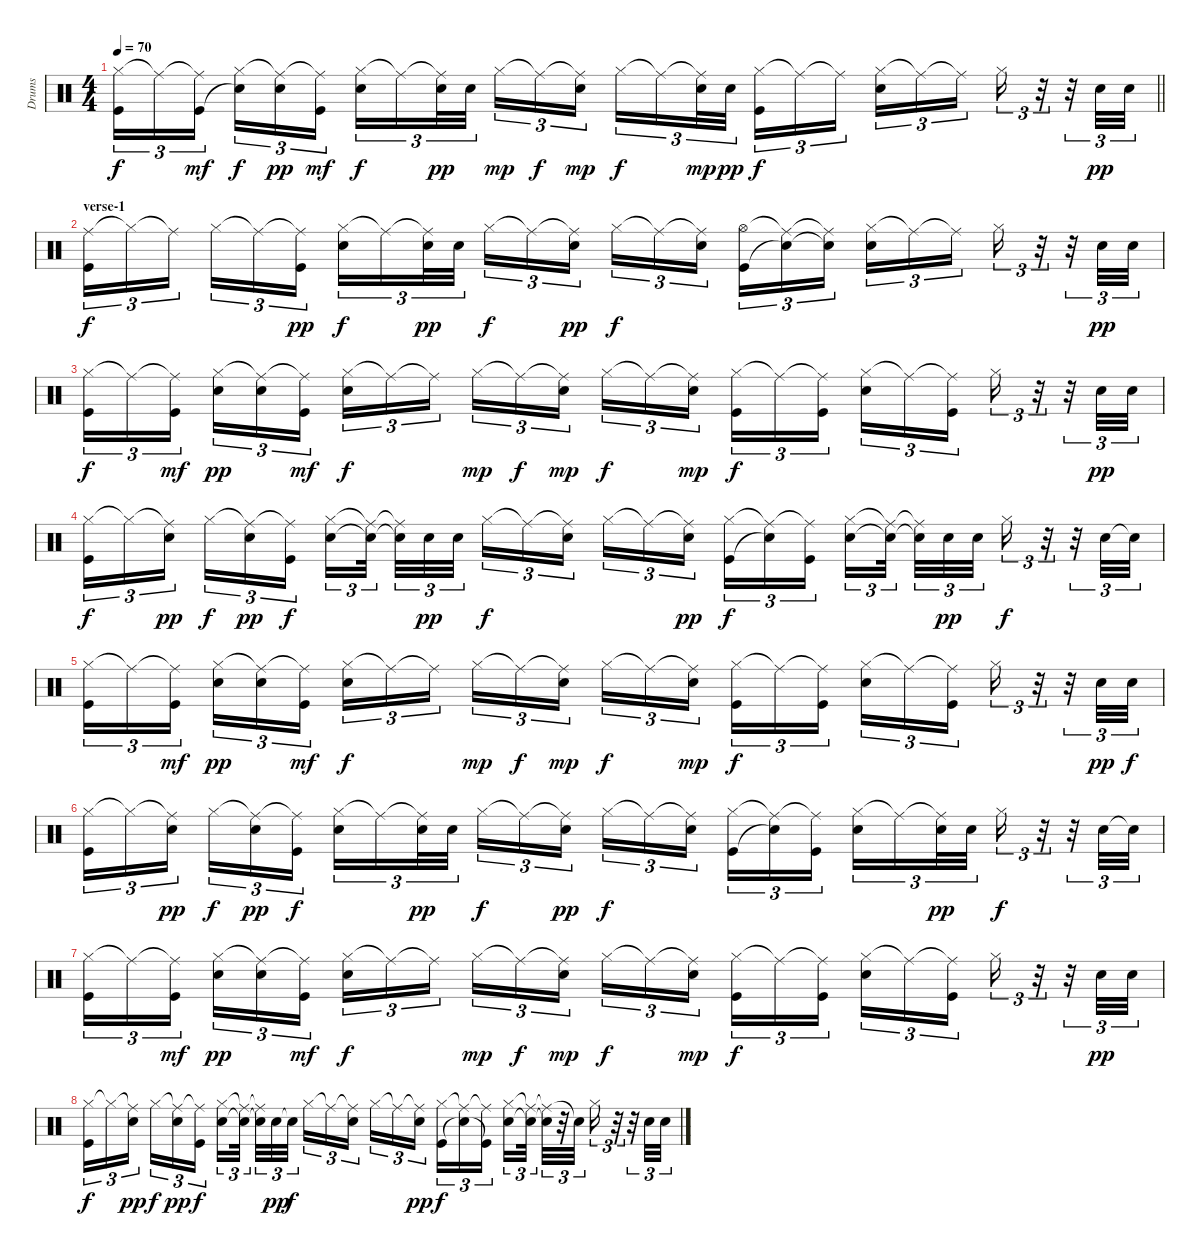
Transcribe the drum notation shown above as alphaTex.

\track ("Drums" "Drums") {instrument percussion}
\staff {score}
\articulation defaults
\ts (4 4)
\tempo 70
\clef neutral
\barLineRight lightlight
\ks c
("Hi-Hat (closed)" "Kick (hit)").16{tu (3 2) dy f} "Ride (middle)"{t}.16{tu (3 2)} ("Ride (middle)"{t} "Kick (hit)").16{tu (3 2) dy mf} ("Hi-Hat (closed)" "Electric Snare (hit)"{t}).16{tu (3 2) dy f} ("Ride (middle)"{t} "Electric Snare (hit)").16{tu (3 2) dy pp} ("Ride (middle)"{t} "Kick (hit)").16{tu (3 2) dy mf} ("Hi-Hat (closed)" "Electric Snare (hit)").16{tu (3 2) dy f} "Ride (middle)"{t}.16{tu (3 2)} ("Ride (middle)"{t} "Electric Snare (hit)").32{tu (3 2) dy pp} "Electric Snare (hit)".32{tu (3 2)} "Hi-Hat (closed)".16{tu (3 2) dy mp} "Ride (middle)"{t}.16{tu (3 2) dy f} ("Ride (middle)"{t} "Electric Snare (hit)").16{tu (3 2) dy mp} "Hi-Hat (closed)".16{tu (3 2) dy f} "Ride (middle)"{t}.16{tu (3 2)} ("Ride (middle)"{t} "Electric Snare (hit)").32{tu (3 2) dy mp} "Electric Snare (hit)".32{tu (3 2) dy pp} ("Hi-Hat (closed)" "Kick (hit)").16{tu (3 2) dy f} "Ride (middle)"{t}.16{tu (3 2)} "Ride (middle)"{t}.16{tu (3 2)} ("Hi-Hat (closed)" "Electric Snare (hit)").16{tu (3 2)} "Ride (middle)"{t}.16{tu (3 2)} "Ride (middle)"{t}.16{tu (3 2)} "Hi-Hat (closed)".16{tu (3 2)} r.32{tu (3 2)} r.32{tu (3 2)} "Electric Snare (hit)".32{tu (3 2) dy pp} "Electric Snare (hit)".32{tu (3 2)} |
\section ("" "verse-1")
("Ride (middle)" "Kick (hit)").16{tu (3 2) dy f} "Hi-Hat (closed)"{t}.16{tu (3 2)} "Ride (middle)"{t}.16{tu (3 2)} "Hi-Hat (closed)".16{tu (3 2)} "Ride (middle)"{t}.16{tu (3 2)} ("Ride (middle)"{t} "Kick (hit)").16{tu (3 2) dy pp} ("Hi-Hat (closed)" "Electric Snare (hit)").16{tu (3 2) dy f} "Ride (middle)"{t}.16{tu (3 2)} ("Ride (middle)"{t} "Electric Snare (hit)").32{tu (3 2) dy pp} "Electric Snare (hit)".32{tu (3 2)} "Hi-Hat (closed)".16{tu (3 2) dy f} "Ride (middle)"{t}.16{tu (3 2)} ("Ride (middle)"{t} "Electric Snare (hit)").16{tu (3 2) dy pp} "Hi-Hat (closed)".16{tu (3 2) dy f} "Ride (middle)"{t}.16{tu (3 2)} ("Ride (middle)"{t} "Electric Snare (hit)").16{tu (3 2)} ("Hi-Hat (open)" "Kick (hit)").16{tu (3 2)} ("Ride (middle)"{t} "Electric Snare (hit)"{t}).16{tu (3 2)} ("Ride (middle)"{t} "Electric Snare (hit)"{t}).16{tu (3 2)} ("Hi-Hat (closed)" "Electric Snare (hit)").16{tu (3 2)} "Ride (middle)"{t}.16{tu (3 2)} "Ride (middle)"{t}.16{tu (3 2)} "Hi-Hat (closed)".16{tu (3 2)} r.32{tu (3 2)} r.32{tu (3 2)} "Electric Snare (hit)".32{tu (3 2) dy pp} "Electric Snare (hit)".32{tu (3 2)} |
("Hi-Hat (closed)" "Kick (hit)").16{tu (3 2) dy f} "Ride (middle)"{t}.16{tu (3 2)} ("Ride (middle)"{t} "Kick (hit)").16{tu (3 2) dy mf} ("Hi-Hat (closed)" "Electric Snare (hit)").16{tu (3 2) dy pp} ("Ride (middle)"{t} "Electric Snare (hit)").16{tu (3 2)} ("Ride (middle)"{t} "Kick (hit)").16{tu (3 2) dy mf} ("Hi-Hat (closed)" "Electric Snare (hit)").16{tu (3 2) dy f} "Ride (middle)"{t}.16{tu (3 2)} "Ride (middle)"{t}.16{tu (3 2)} "Hi-Hat (closed)".16{tu (3 2) dy mp} "Ride (middle)"{t}.16{tu (3 2) dy f} ("Ride (middle)"{t} "Electric Snare (hit)").16{tu (3 2) dy mp} "Hi-Hat (closed)".16{tu (3 2) dy f} "Ride (middle)"{t}.16{tu (3 2)} ("Ride (middle)"{t} "Electric Snare (hit)").16{tu (3 2) dy mp} ("Hi-Hat (closed)" "Kick (hit)").16{tu (3 2) dy f} "Ride (middle)"{t}.16{tu (3 2)} ("Ride (middle)"{t} "Kick (hit)").16{tu (3 2)} ("Hi-Hat (closed)" "Electric Snare (hit)").16{tu (3 2)} "Ride (middle)"{t}.16{tu (3 2)} ("Ride (middle)"{t} "Kick (hit)").16{tu (3 2)} "Hi-Hat (closed)".16{tu (3 2)} r.32{tu (3 2)} r.32{tu (3 2)} "Electric Snare (hit)".32{tu (3 2) dy pp} "Electric Snare (hit)".32{tu (3 2)} |
("Hi-Hat (closed)" "Kick (hit)").16{tu (3 2) dy f} "Hi-Hat (closed)"{t}.16{tu (3 2)} ("Ride (middle)"{t} "Electric Snare (hit)").16{tu (3 2) dy pp} "Hi-Hat (closed)".16{tu (3 2) dy f} ("Ride (middle)"{t} "Electric Snare (hit)").16{tu (3 2) dy pp} ("Ride (middle)"{t} "Kick (hit)").16{tu (3 2) dy f} ("Hi-Hat (closed)" "Electric Snare (hit)").16{tu (3 2)} ("Ride (middle)"{t} "Electric Snare (hit)"{t}).32{tu (3 2)} ("Ride (middle)"{t} "Electric Snare (hit)"{t}).32{tu (3 2)} "Electric Snare (hit)".32{tu (3 2) dy pp} "Electric Snare (hit)".32{tu (3 2)} "Hi-Hat (closed)".16{tu (3 2) dy f} "Ride (middle)"{t}.16{tu (3 2)} ("Ride (middle)"{t} "Electric Snare (hit)").16{tu (3 2)} "Hi-Hat (closed)".16{tu (3 2)} "Ride (middle)"{t}.16{tu (3 2)} ("Ride (middle)"{t} "Electric Snare (hit)").16{tu (3 2) dy pp} ("Hi-Hat (closed)" "Kick (hit)").16{tu (3 2) dy f} ("Ride (middle)"{t} "Electric Snare (hit)"{t}).16{tu (3 2)} ("Ride (middle)"{t} "Kick (hit)").16{tu (3 2)} ("Hi-Hat (closed)" "Electric Snare (hit)").16{tu (3 2)} ("Ride (middle)"{t} "Electric Snare (hit)"{t}).32{tu (3 2)} ("Ride (middle)"{t} "Electric Snare (hit)"{t}).32{tu (3 2)} "Electric Snare (hit)".32{tu (3 2) dy pp} "Electric Snare (hit)".32{tu (3 2)} "Hi-Hat (closed)".16{tu (3 2) dy f} r.32{tu (3 2)} r.32{tu (3 2)} "Electric Snare (hit)".32{tu (3 2)} "Electric Snare (hit)"{t}.32{tu (3 2)} |
("Hi-Hat (closed)" "Kick (hit)").16{tu (3 2)} "Ride (middle)"{t}.16{tu (3 2)} ("Ride (middle)"{t} "Kick (hit)").16{tu (3 2) dy mf} ("Hi-Hat (closed)" "Electric Snare (hit)").16{tu (3 2) dy pp} ("Ride (middle)"{t} "Electric Snare (hit)").16{tu (3 2)} ("Ride (middle)"{t} "Kick (hit)").16{tu (3 2) dy mf} ("Hi-Hat (closed)" "Electric Snare (hit)").16{tu (3 2) dy f} "Ride (middle)"{t}.16{tu (3 2)} "Ride (middle)"{t}.16{tu (3 2)} "Hi-Hat (closed)".16{tu (3 2) dy mp} "Ride (middle)"{t}.16{tu (3 2) dy f} ("Ride (middle)"{t} "Electric Snare (hit)").16{tu (3 2) dy mp} "Hi-Hat (closed)".16{tu (3 2) dy f} "Ride (middle)"{t}.16{tu (3 2)} ("Ride (middle)"{t} "Electric Snare (hit)").16{tu (3 2) dy mp} ("Hi-Hat (closed)" "Kick (hit)").16{tu (3 2) dy f} "Ride (middle)"{t}.16{tu (3 2)} ("Ride (middle)"{t} "Kick (hit)").16{tu (3 2)} ("Hi-Hat (closed)" "Electric Snare (hit)").16{tu (3 2)} "Ride (middle)"{t}.16{tu (3 2)} ("Ride (middle)"{t} "Kick (hit)").16{tu (3 2)} "Hi-Hat (closed)".16{tu (3 2)} r.32{tu (3 2)} r.32{tu (3 2)} "Electric Snare (hit)".32{tu (3 2) dy pp} "Electric Snare (hit)".32{tu (3 2) dy f} |
("Hi-Hat (closed)" "Kick (hit)").16{tu (3 2)} "Hi-Hat (closed)"{t}.16{tu (3 2)} ("Ride (middle)"{t} "Electric Snare (hit)").16{tu (3 2) dy pp} "Hi-Hat (closed)".16{tu (3 2) dy f} ("Ride (middle)"{t} "Electric Snare (hit)").16{tu (3 2) dy pp} ("Ride (middle)"{t} "Kick (hit)").16{tu (3 2) dy f} ("Hi-Hat (closed)" "Electric Snare (hit)").16{tu (3 2)} "Ride (middle)"{t}.16{tu (3 2)} ("Ride (middle)"{t} "Electric Snare (hit)").32{tu (3 2) dy pp} "Electric Snare (hit)".32{tu (3 2)} "Hi-Hat (closed)".16{tu (3 2) dy f} "Ride (middle)"{t}.16{tu (3 2)} ("Ride (middle)"{t} "Electric Snare (hit)").16{tu (3 2) dy pp} "Hi-Hat (closed)".16{tu (3 2) dy f} "Ride (middle)"{t}.16{tu (3 2)} ("Ride (middle)"{t} "Electric Snare (hit)").16{tu (3 2)} ("Hi-Hat (closed)" "Kick (hit)").16{tu (3 2)} ("Ride (middle)"{t} "Electric Snare (hit)"{t}).16{tu (3 2)} ("Ride (middle)"{t} "Kick (hit)").16{tu (3 2)} ("Hi-Hat (closed)" "Electric Snare (hit)").16{tu (3 2)} "Ride (middle)"{t}.16{tu (3 2)} ("Ride (middle)"{t} "Electric Snare (hit)").32{tu (3 2) dy pp} "Electric Snare (hit)".32{tu (3 2)} "Hi-Hat (closed)".16{tu (3 2) dy f} r.32{tu (3 2)} r.32{tu (3 2)} "Electric Snare (hit)".32{tu (3 2)} "Electric Snare (hit)"{t}.32{tu (3 2)} |
("Hi-Hat (closed)" "Kick (hit)").16{tu (3 2)} "Ride (middle)"{t}.16{tu (3 2)} ("Ride (middle)"{t} "Kick (hit)").16{tu (3 2) dy mf} ("Hi-Hat (closed)" "Electric Snare (hit)").16{tu (3 2) dy pp} ("Ride (middle)"{t} "Electric Snare (hit)").16{tu (3 2)} ("Ride (middle)"{t} "Kick (hit)").16{tu (3 2) dy mf} ("Hi-Hat (closed)" "Electric Snare (hit)").16{tu (3 2) dy f} "Ride (middle)"{t}.16{tu (3 2)} "Ride (middle)"{t}.16{tu (3 2)} "Hi-Hat (closed)".16{tu (3 2) dy mp} "Ride (middle)"{t}.16{tu (3 2) dy f} ("Ride (middle)"{t} "Electric Snare (hit)").16{tu (3 2) dy mp} "Hi-Hat (closed)".16{tu (3 2) dy f} "Ride (middle)"{t}.16{tu (3 2)} ("Ride (middle)"{t} "Electric Snare (hit)").16{tu (3 2) dy mp} ("Hi-Hat (closed)" "Kick (hit)").16{tu (3 2) dy f} "Ride (middle)"{t}.16{tu (3 2)} ("Ride (middle)"{t} "Kick (hit)").16{tu (3 2)} ("Hi-Hat (closed)" "Electric Snare (hit)").16{tu (3 2)} "Ride (middle)"{t}.16{tu (3 2)} ("Ride (middle)"{t} "Kick (hit)").16{tu (3 2)} "Hi-Hat (closed)".16{tu (3 2)} r.32{tu (3 2)} r.32{tu (3 2)} "Electric Snare (hit)".32{tu (3 2) dy pp} "Electric Snare (hit)".32{tu (3 2)} |
("Hi-Hat (closed)" "Kick (hit)").16{tu (3 2) dy f} "Hi-Hat (closed)"{t}.16{tu (3 2)} ("Ride (middle)"{t} "Electric Snare (hit)").16{tu (3 2) dy pp} "Hi-Hat (closed)".16{tu (3 2) dy f} ("Ride (middle)"{t} "Electric Snare (hit)").16{tu (3 2) dy pp} ("Ride (middle)"{t} "Kick (hit)").16{tu (3 2) dy f} ("Hi-Hat (closed)" "Electric Snare (hit)").16{tu (3 2)} ("Ride (middle)"{t} "Electric Snare (hit)"{t}).32{tu (3 2)} ("Ride (middle)"{t} "Electric Snare (hit)"{t}).32{tu (3 2)} "Electric Snare (hit)".32{tu (3 2) dy pp} "Electric Snare (hit)"{t}.32{tu (3 2) dy f} "Hi-Hat (closed)".16{tu (3 2)} "Ride (middle)"{t}.16{tu (3 2)} ("Ride (middle)"{t} "Electric Snare (hit)").16{tu (3 2)} "Hi-Hat (closed)".16{tu (3 2)} "Ride (middle)"{t}.16{tu (3 2)} ("Ride (middle)"{t} "Electric Snare (hit)").16{tu (3 2) dy pp} ("Hi-Hat (closed)" "Kick (hit)").16{tu (3 2) dy f} ("Ride (middle)"{t} "Electric Snare (hit)"{t}).16{tu (3 2)} ("Ride (middle)"{t} "Kick (hit)"{t}).16{tu (3 2)} ("Hi-Hat (closed)" "Electric Snare (hit)").16{tu (3 2)} ("Ride (middle)"{t} "Electric Snare (hit)"{t}).32{tu (3 2)} ("Ride (middle)"{t} "Electric Snare (hit)"{t}).32{tu (3 2)} r.32{tu (3 2)} "Electric Snare (hit)"{t}.32{tu (3 2)} "Hi-Hat (closed)".16{tu (3 2)} r.32{tu (3 2)} r.32{tu (3 2)} "Electric Snare (hit)".32{tu (3 2)} "Electric Snare (hit)".32{tu (3 2)}
